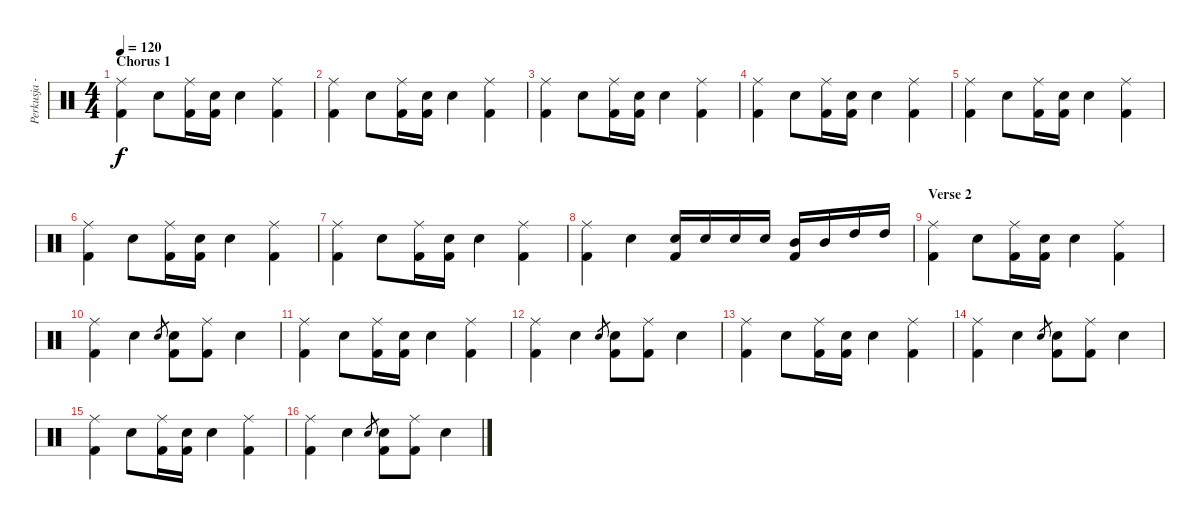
\track ("Perkusja - Mielony" "Perkusja -") {instrument percussion}
\staff {score}
\articulation defaults
\ts (4 4)
\section ("" "Chorus 1")
\tempo 120
\clef neutral
\ks c
("Ride (middle)" "Kick (hit) 2").4{dy f} "Snare (hit) 2".8 ("Ride (middle)" "Kick (hit) 2").16 ("Snare (hit) 2" "Kick (hit) 2").16 "Snare (hit) 2".4 ("Ride (middle)" "Kick (hit) 2").4 |
("Ride (middle)" "Kick (hit) 2").4 "Snare (hit) 2".8 ("Ride (middle)" "Kick (hit) 2").16 ("Snare (hit) 2" "Kick (hit) 2").16 "Snare (hit) 2".4 ("Ride (middle)" "Kick (hit) 2").4 |
("Ride (middle)" "Kick (hit) 2").4 "Snare (hit) 2".8 ("Ride (middle)" "Kick (hit) 2").16 ("Snare (hit) 2" "Kick (hit) 2").16 "Snare (hit) 2".4 ("Ride (middle)" "Kick (hit) 2").4 |
("Ride (middle)" "Kick (hit) 2").4 "Snare (hit) 2".8 ("Ride (middle)" "Kick (hit) 2").16 ("Snare (hit) 2" "Kick (hit) 2").16 "Snare (hit) 2".4 ("Ride (middle)" "Kick (hit) 2").4 |
("Ride (middle)" "Kick (hit) 2").4 "Snare (hit) 2".8 ("Ride (middle)" "Kick (hit) 2").16 ("Snare (hit) 2" "Kick (hit) 2").16 "Snare (hit) 2".4 ("Ride (middle)" "Kick (hit) 2").4 |
("Ride (middle)" "Kick (hit) 2").4 "Snare (hit) 2".8 ("Ride (middle)" "Kick (hit) 2").16 ("Snare (hit) 2" "Kick (hit) 2").16 "Snare (hit) 2".4 ("Ride (middle)" "Kick (hit) 2").4 |
("Ride (middle)" "Kick (hit) 2").4 "Snare (hit) 2".8 ("Ride (middle)" "Kick (hit) 2").16 ("Snare (hit) 2" "Kick (hit) 2").16 "Snare (hit) 2".4 ("Ride (middle)" "Kick (hit) 2").4 |
("Ride (middle)" "Kick (hit) 2").4 "Snare (hit) 2".4 ("Snare (hit) 2" "Kick (hit) 2").16 "Snare (hit) 2".16 "Snare (hit) 2".16 "Snare (hit) 2".16 ("Mid Tom (hit)" "Kick (hit) 2").16 "Mid Tom (hit)".16 "High Tom (hit)".16 "High Tom (hit)".16 |
\section ("" "Verse 2")
("Ride (middle)" "Kick (hit) 2").4 "Snare (hit) 2".8 ("Ride (middle)" "Kick (hit) 2").16 ("Snare (hit) 2" "Kick (hit) 2").16 "Snare (hit) 2".4 ("Ride (middle)" "Kick (hit) 2").4 |
("Ride (middle)" "Kick (hit) 2").4 "Snare (hit) 2".4 "Snare (hit) 2".8{gr} ("Snare (hit) 2" "Kick (hit) 2").8 ("Ride (middle)" "Kick (hit) 2").8 "Snare (hit) 2".4 |
("Ride (middle)" "Kick (hit) 2").4 "Snare (hit) 2".8 ("Ride (middle)" "Kick (hit) 2").16 ("Snare (hit) 2" "Kick (hit) 2").16 "Snare (hit) 2".4 ("Ride (middle)" "Kick (hit) 2").4 |
("Ride (middle)" "Kick (hit) 2").4 "Snare (hit) 2".4 "Snare (hit) 2".8{gr} ("Snare (hit) 2" "Kick (hit) 2").8 ("Ride (middle)" "Kick (hit) 2").8 "Snare (hit) 2".4 |
("Ride (middle)" "Kick (hit) 2").4 "Snare (hit) 2".8 ("Ride (middle)" "Kick (hit) 2").16 ("Snare (hit) 2" "Kick (hit) 2").16 "Snare (hit) 2".4 ("Ride (middle)" "Kick (hit) 2").4 |
("Ride (middle)" "Kick (hit) 2").4 "Snare (hit) 2".4 "Snare (hit) 2".8{gr} ("Snare (hit) 2" "Kick (hit) 2").8 ("Ride (middle)" "Kick (hit) 2").8 "Snare (hit) 2".4 |
("Ride (middle)" "Kick (hit) 2").4 "Snare (hit) 2".8 ("Ride (middle)" "Kick (hit) 2").16 ("Snare (hit) 2" "Kick (hit) 2").16 "Snare (hit) 2".4 ("Ride (middle)" "Kick (hit) 2").4 |
("Ride (middle)" "Kick (hit) 2").4 "Snare (hit) 2".4 "Snare (hit) 2".8{gr} ("Snare (hit) 2" "Kick (hit) 2").8 ("Ride (middle)" "Kick (hit) 2").8 "Snare (hit) 2".4
